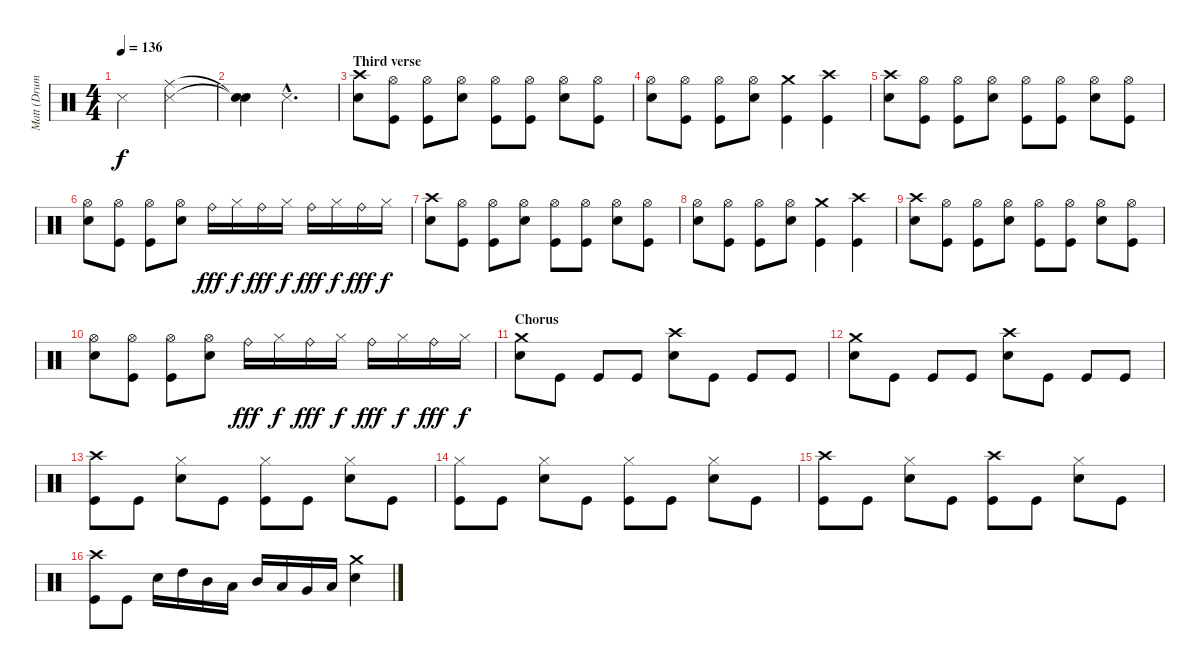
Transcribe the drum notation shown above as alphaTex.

\track ("Matt (Drums)" "Matt (Drum") {instrument percussion}
\staff {score}
\articulation defaults
\ts (4 4)
\tempo 136
\clef neutral
\ks c "Metronome (hit)"{t}.2{dy f}
("Ride (middle)" "Metronome (hit)").2 |
("Snare (hit)"{t} "Snare (hit)"{t}).4 "Metronome (hit)"{hac}.2{d} |
\section ("" "Third verse")
("Crash high (hit)" "Electric Snare (hit)").8 ("Hi-Hat (open)" "Kick (hit)").8 ("Hi-Hat (open)" "Kick (hit)").8 ("Hi-Hat (open)" "Electric Snare (hit)").8 ("Hi-Hat (open)" "Kick (hit)").8 ("Hi-Hat (open)" "Kick (hit)").8 ("Hi-Hat (open)" "Electric Snare (hit)").8 ("Hi-Hat (open)" "Kick (hit)").8 |
("Hi-Hat (open)" "Electric Snare (hit)").8 ("Hi-Hat (open)" "Kick (hit)").8 ("Hi-Hat (open)" "Kick (hit)").8 ("Hi-Hat (open)" "Electric Snare (hit)").8 ("Crash medium (hit)" "Kick (hit)").4 ("Crash high (hit)" "Kick (hit)").4 |
("Crash high (hit)" "Electric Snare (hit)").8 ("Hi-Hat (open)" "Kick (hit)").8 ("Hi-Hat (open)" "Kick (hit)").8 ("Hi-Hat (open)" "Electric Snare (hit)").8 ("Hi-Hat (open)" "Kick (hit)").8 ("Hi-Hat (open)" "Kick (hit)").8 ("Hi-Hat (open)" "Electric Snare (hit)").8 ("Hi-Hat (open)" "Kick (hit)").8 |
("Hi-Hat (open)" "Electric Snare (hit)").8 ("Hi-Hat (open)" "Kick (hit)").8 ("Hi-Hat (open)" "Kick (hit)").8 ("Hi-Hat (open)" "Electric Snare (hit)").8 "Ride (bell)".16{dy fff} "Hi-Hat (closed)".16{dy f} "Ride (bell)".16{dy fff} "Hi-Hat (closed)".16{dy f} "Ride (bell)".16{dy fff} "Hi-Hat (closed)".16{dy f} "Ride (bell)".16{dy fff} "Hi-Hat (closed)".16{dy f} |
("Crash high (hit)" "Electric Snare (hit)").8 ("Hi-Hat (open)" "Kick (hit)").8 ("Hi-Hat (open)" "Kick (hit)").8 ("Hi-Hat (open)" "Electric Snare (hit)").8 ("Hi-Hat (open)" "Kick (hit)").8 ("Hi-Hat (open)" "Kick (hit)").8 ("Hi-Hat (open)" "Electric Snare (hit)").8 ("Hi-Hat (open)" "Kick (hit)").8 |
("Hi-Hat (open)" "Electric Snare (hit)").8 ("Hi-Hat (open)" "Kick (hit)").8 ("Hi-Hat (open)" "Kick (hit)").8 ("Hi-Hat (open)" "Electric Snare (hit)").8 ("Crash medium (hit)" "Kick (hit)").4 ("Crash high (hit)" "Kick (hit)").4 |
("Crash high (hit)" "Electric Snare (hit)").8 ("Hi-Hat (open)" "Kick (hit)").8 ("Hi-Hat (open)" "Kick (hit)").8 ("Hi-Hat (open)" "Electric Snare (hit)").8 ("Hi-Hat (open)" "Kick (hit)").8 ("Hi-Hat (open)" "Kick (hit)").8 ("Hi-Hat (open)" "Electric Snare (hit)").8 ("Hi-Hat (open)" "Kick (hit)").8 |
("Hi-Hat (open)" "Electric Snare (hit)").8 ("Hi-Hat (open)" "Kick (hit)").8 ("Hi-Hat (open)" "Kick (hit)").8 ("Hi-Hat (open)" "Electric Snare (hit)").8 "Ride (bell)".16{dy fff} "Hi-Hat (closed)".16{dy f} "Ride (bell)".16{dy fff} "Hi-Hat (closed)".16{dy f} "Ride (bell)".16{dy fff} "Hi-Hat (closed)".16{dy f} "Ride (bell)".16{dy fff} "Hi-Hat (closed)".16{dy f} |
\section ("" "Chorus")
("Crash medium (hit)" "Electric Snare (hit)").8 "Kick (hit)".8 "Kick (hit)".8 "Kick (hit)".8 ("Crash high (hit)" "Electric Snare (hit)").8 "Kick (hit)".8 "Kick (hit)".8 "Kick (hit)".8 |
("Crash medium (hit)" "Electric Snare (hit)").8 "Kick (hit)".8 "Kick (hit)".8 "Kick (hit)".8 ("Crash high (hit)" "Electric Snare (hit)").8 "Kick (hit)".8 "Kick (hit)".8 "Kick (hit)".8 |
("Crash high (hit)" "Kick (hit)").8 "Kick (hit)".8 ("Hi-Hat (closed)" "Electric Snare (hit)").8 "Kick (hit)".8 ("Hi-Hat (closed)" "Kick (hit)").8 "Kick (hit)".8 ("Hi-Hat (closed)" "Electric Snare (hit)").8 "Kick (hit)".8 |
("Hi-Hat (closed)" "Kick (hit)").8 "Kick (hit)".8 ("Hi-Hat (closed)" "Electric Snare (hit)").8 "Kick (hit)".8 ("Hi-Hat (closed)" "Kick (hit)").8 "Kick (hit)".8 ("Hi-Hat (closed)" "Electric Snare (hit)").8 "Kick (hit)".8 |
("Crash high (hit)" "Kick (hit)").8 "Kick (hit)".8 ("Hi-Hat (closed)" "Electric Snare (hit)").8 "Kick (hit)".8 ("Crash high (hit)" "Kick (hit)").8 "Kick (hit)".8 ("Hi-Hat (closed)" "Electric Snare (hit)").8 "Kick (hit)".8 |
("Crash high (hit)" "Kick (hit)").8 "Kick (hit)".8 "Electric Snare (hit)".16 "High Tom (hit)".16 "Mid Tom (hit)".16 "Low Tom (hit)".16 "Mid Tom (hit)".16 "Low Tom (hit)".16 "Very Low Tom (hit)".16 "Low Floor Tom (hit)".16 ("Crash medium (hit)" "Electric Snare (hit)").4
